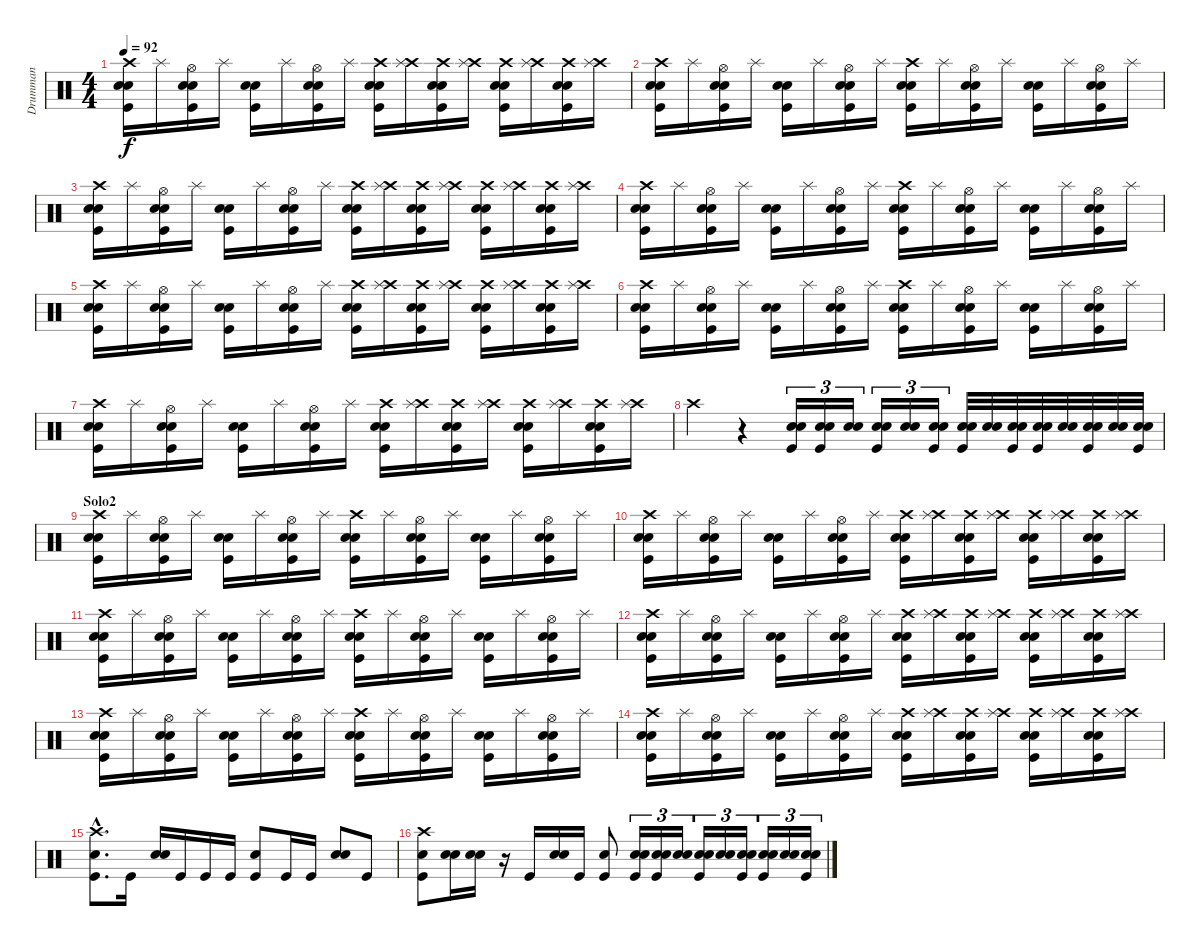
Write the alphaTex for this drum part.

\track ("Drumman" "Drumman") {instrument percussion}
\staff {score}
\articulation defaults
\ts (4 4)
\tempo 92
\clef neutral
\ks c
("Crash high (hit)" "Snare (hit) 2" "Electric Snare (hit)" "Kick (hit)").16{dy f} "Splash (hit)".16 ("Hi-Hat (open)" "Snare (hit) 2" "Electric Snare (hit)" "Kick (hit)").16 "Splash (hit)".16 ("Snare (hit) 2" "Electric Snare (hit)" "Kick (hit)").16 "Splash (hit)".16 ("Hi-Hat (open)" "Snare (hit) 2" "Electric Snare (hit)" "Kick (hit)").16 "Splash (hit)".16 ("Crash high (hit)" "Snare (hit) 2" "Electric Snare (hit)" "Kick (hit)").16 ("Crash high (hit)" "Splash (hit)").16 ("Crash high (hit)" "Snare (hit) 2" "Electric Snare (hit)" "Kick (hit)").16 ("Crash high (hit)" "Splash (hit)").16 ("Crash high (hit)" "Snare (hit) 2" "Electric Snare (hit)" "Kick (hit)").16 ("Crash high (hit)" "Splash (hit)").16 ("Crash high (hit)" "Snare (hit) 2" "Electric Snare (hit)" "Kick (hit)").16 ("Crash high (hit)" "Splash (hit)").16 |
("Crash high (hit)" "Snare (hit) 2" "Electric Snare (hit)" "Kick (hit)").16 "Splash (hit)".16 ("Hi-Hat (open)" "Snare (hit) 2" "Electric Snare (hit)" "Kick (hit)").16 "Splash (hit)".16 ("Snare (hit) 2" "Electric Snare (hit)" "Kick (hit)").16 "Splash (hit)".16 ("Hi-Hat (open)" "Snare (hit) 2" "Electric Snare (hit)" "Kick (hit)").16 "Splash (hit)".16 ("Crash high (hit)" "Snare (hit) 2" "Electric Snare (hit)" "Kick (hit)").16 "Splash (hit)".16 ("Hi-Hat (open)" "Snare (hit) 2" "Electric Snare (hit)" "Kick (hit)").16 "Splash (hit)".16 ("Snare (hit) 2" "Electric Snare (hit)" "Kick (hit)").16 "Splash (hit)".16 ("Hi-Hat (open)" "Snare (hit) 2" "Electric Snare (hit)" "Kick (hit)").16 "Splash (hit)".16 |
("Crash high (hit)" "Snare (hit) 2" "Electric Snare (hit)" "Kick (hit)").16 "Splash (hit)".16 ("Hi-Hat (open)" "Snare (hit) 2" "Electric Snare (hit)" "Kick (hit)").16 "Splash (hit)".16 ("Snare (hit) 2" "Electric Snare (hit)" "Kick (hit)").16 "Splash (hit)".16 ("Hi-Hat (open)" "Snare (hit) 2" "Electric Snare (hit)" "Kick (hit)").16 "Splash (hit)".16 ("Crash high (hit)" "Snare (hit) 2" "Electric Snare (hit)" "Kick (hit)").16 ("Crash high (hit)" "Splash (hit)").16 ("Crash high (hit)" "Snare (hit) 2" "Electric Snare (hit)" "Kick (hit)").16 ("Crash high (hit)" "Splash (hit)").16 ("Crash high (hit)" "Snare (hit) 2" "Electric Snare (hit)" "Kick (hit)").16 ("Crash high (hit)" "Splash (hit)").16 ("Crash high (hit)" "Snare (hit) 2" "Electric Snare (hit)" "Kick (hit)").16 ("Crash high (hit)" "Splash (hit)").16 |
("Crash high (hit)" "Snare (hit) 2" "Electric Snare (hit)" "Kick (hit)").16 "Splash (hit)".16 ("Hi-Hat (open)" "Snare (hit) 2" "Electric Snare (hit)" "Kick (hit)").16 "Splash (hit)".16 ("Snare (hit) 2" "Electric Snare (hit)" "Kick (hit)").16 "Splash (hit)".16 ("Hi-Hat (open)" "Snare (hit) 2" "Electric Snare (hit)" "Kick (hit)").16 "Splash (hit)".16 ("Crash high (hit)" "Snare (hit) 2" "Electric Snare (hit)" "Kick (hit)").16 "Splash (hit)".16 ("Hi-Hat (open)" "Snare (hit) 2" "Electric Snare (hit)" "Kick (hit)").16 "Splash (hit)".16 ("Snare (hit) 2" "Electric Snare (hit)" "Kick (hit)").16 "Splash (hit)".16 ("Hi-Hat (open)" "Snare (hit) 2" "Electric Snare (hit)" "Kick (hit)").16 "Splash (hit)".16 |
("Crash high (hit)" "Snare (hit) 2" "Electric Snare (hit)" "Kick (hit)").16 "Splash (hit)".16 ("Hi-Hat (open)" "Snare (hit) 2" "Electric Snare (hit)" "Kick (hit)").16 "Splash (hit)".16 ("Snare (hit) 2" "Electric Snare (hit)" "Kick (hit)").16 "Splash (hit)".16 ("Hi-Hat (open)" "Snare (hit) 2" "Electric Snare (hit)" "Kick (hit)").16 "Splash (hit)".16 ("Crash high (hit)" "Snare (hit) 2" "Electric Snare (hit)" "Kick (hit)").16 ("Crash high (hit)" "Splash (hit)").16 ("Crash high (hit)" "Snare (hit) 2" "Electric Snare (hit)" "Kick (hit)").16 ("Crash high (hit)" "Splash (hit)").16 ("Crash high (hit)" "Snare (hit) 2" "Electric Snare (hit)" "Kick (hit)").16 ("Crash high (hit)" "Splash (hit)").16 ("Crash high (hit)" "Snare (hit) 2" "Electric Snare (hit)" "Kick (hit)").16 ("Crash high (hit)" "Splash (hit)").16 |
("Crash high (hit)" "Snare (hit) 2" "Electric Snare (hit)" "Kick (hit)").16 "Splash (hit)".16 ("Hi-Hat (open)" "Snare (hit) 2" "Electric Snare (hit)" "Kick (hit)").16 "Splash (hit)".16 ("Snare (hit) 2" "Electric Snare (hit)" "Kick (hit)").16 "Splash (hit)".16 ("Hi-Hat (open)" "Snare (hit) 2" "Electric Snare (hit)" "Kick (hit)").16 "Splash (hit)".16 ("Crash high (hit)" "Snare (hit) 2" "Electric Snare (hit)" "Kick (hit)").16 "Splash (hit)".16 ("Hi-Hat (open)" "Snare (hit) 2" "Electric Snare (hit)" "Kick (hit)").16 "Splash (hit)".16 ("Snare (hit) 2" "Electric Snare (hit)" "Kick (hit)").16 "Splash (hit)".16 ("Hi-Hat (open)" "Snare (hit) 2" "Electric Snare (hit)" "Kick (hit)").16 "Splash (hit)".16 |
("Crash high (hit)" "Snare (hit) 2" "Electric Snare (hit)" "Kick (hit)").16 "Splash (hit)".16 ("Hi-Hat (open)" "Snare (hit) 2" "Electric Snare (hit)" "Kick (hit)").16 "Splash (hit)".16 ("Snare (hit) 2" "Electric Snare (hit)" "Kick (hit)").16 "Splash (hit)".16 ("Hi-Hat (open)" "Snare (hit) 2" "Electric Snare (hit)" "Kick (hit)").16 "Splash (hit)".16 ("Crash high (hit)" "Snare (hit) 2" "Electric Snare (hit)" "Kick (hit)").16 ("Crash high (hit)" "Splash (hit)").16 ("Crash high (hit)" "Snare (hit) 2" "Electric Snare (hit)" "Kick (hit)").16 ("Crash high (hit)" "Splash (hit)").16 ("Crash high (hit)" "Snare (hit) 2" "Electric Snare (hit)" "Kick (hit)").16 ("Crash high (hit)" "Splash (hit)").16 ("Crash high (hit)" "Snare (hit) 2" "Electric Snare (hit)" "Kick (hit)").16 ("Crash high (hit)" "Splash (hit)").16 |
"Crash high (hit)".4 r.4 ("Snare (hit) 2" "Electric Snare (hit)" "Kick (hit)").16{tu (3 2)} ("Snare (hit) 2" "Electric Snare (hit)" "Kick (hit)").16{tu (3 2)} ("Snare (hit) 2" "Electric Snare (hit)").16{tu (3 2)} ("Snare (hit) 2" "Electric Snare (hit)" "Kick (hit)").16{tu (3 2)} ("Snare (hit) 2" "Electric Snare (hit)").16{tu (3 2)} ("Snare (hit) 2" "Electric Snare (hit)" "Kick (hit)").16{tu (3 2)} ("Snare (hit) 2" "Electric Snare (hit)" "Kick (hit)").32 ("Snare (hit) 2" "Electric Snare (hit)").32 ("Snare (hit) 2" "Electric Snare (hit)" "Kick (hit)").32 ("Snare (hit) 2" "Electric Snare (hit)" "Kick (hit)").32 ("Snare (hit) 2" "Electric Snare (hit)").32 ("Snare (hit) 2" "Electric Snare (hit)" "Kick (hit)").32 ("Snare (hit) 2" "Electric Snare (hit)").32 ("Snare (hit) 2" "Electric Snare (hit)" "Kick (hit)").32 |
\section ("" "Solo2")
("Crash high (hit)" "Snare (hit) 2" "Electric Snare (hit)" "Kick (hit)").16 "Splash (hit)".16 ("Hi-Hat (open)" "Snare (hit) 2" "Electric Snare (hit)" "Kick (hit)").16 "Splash (hit)".16 ("Snare (hit) 2" "Electric Snare (hit)" "Kick (hit)").16 "Splash (hit)".16 ("Hi-Hat (open)" "Snare (hit) 2" "Electric Snare (hit)" "Kick (hit)").16 "Splash (hit)".16 ("Crash high (hit)" "Snare (hit) 2" "Electric Snare (hit)" "Kick (hit)").16 "Splash (hit)".16 ("Hi-Hat (open)" "Snare (hit) 2" "Electric Snare (hit)" "Kick (hit)").16 "Splash (hit)".16 ("Snare (hit) 2" "Electric Snare (hit)" "Kick (hit)").16 "Splash (hit)".16 ("Hi-Hat (open)" "Snare (hit) 2" "Electric Snare (hit)" "Kick (hit)").16 "Splash (hit)".16 |
("Crash high (hit)" "Snare (hit) 2" "Electric Snare (hit)" "Kick (hit)").16 "Splash (hit)".16 ("Hi-Hat (open)" "Snare (hit) 2" "Electric Snare (hit)" "Kick (hit)").16 "Splash (hit)".16 ("Snare (hit) 2" "Electric Snare (hit)" "Kick (hit)").16 "Splash (hit)".16 ("Hi-Hat (open)" "Snare (hit) 2" "Electric Snare (hit)" "Kick (hit)").16 "Splash (hit)".16 ("Crash high (hit)" "Snare (hit) 2" "Electric Snare (hit)" "Kick (hit)").16 ("Crash high (hit)" "Splash (hit)").16 ("Crash high (hit)" "Snare (hit) 2" "Electric Snare (hit)" "Kick (hit)").16 ("Crash high (hit)" "Splash (hit)").16 ("Crash high (hit)" "Snare (hit) 2" "Electric Snare (hit)" "Kick (hit)").16 ("Crash high (hit)" "Splash (hit)").16 ("Crash high (hit)" "Snare (hit) 2" "Electric Snare (hit)" "Kick (hit)").16 ("Crash high (hit)" "Splash (hit)").16 |
("Crash high (hit)" "Snare (hit) 2" "Electric Snare (hit)" "Kick (hit)").16 "Splash (hit)".16 ("Hi-Hat (open)" "Snare (hit) 2" "Electric Snare (hit)" "Kick (hit)").16 "Splash (hit)".16 ("Snare (hit) 2" "Electric Snare (hit)" "Kick (hit)").16 "Splash (hit)".16 ("Hi-Hat (open)" "Snare (hit) 2" "Electric Snare (hit)" "Kick (hit)").16 "Splash (hit)".16 ("Crash high (hit)" "Snare (hit) 2" "Electric Snare (hit)" "Kick (hit)").16 "Splash (hit)".16 ("Hi-Hat (open)" "Snare (hit) 2" "Electric Snare (hit)" "Kick (hit)").16 "Splash (hit)".16 ("Snare (hit) 2" "Electric Snare (hit)" "Kick (hit)").16 "Splash (hit)".16 ("Hi-Hat (open)" "Snare (hit) 2" "Electric Snare (hit)" "Kick (hit)").16 "Splash (hit)".16 |
("Crash high (hit)" "Snare (hit) 2" "Electric Snare (hit)" "Kick (hit)").16 "Splash (hit)".16 ("Hi-Hat (open)" "Snare (hit) 2" "Electric Snare (hit)" "Kick (hit)").16 "Splash (hit)".16 ("Snare (hit) 2" "Electric Snare (hit)" "Kick (hit)").16 "Splash (hit)".16 ("Hi-Hat (open)" "Snare (hit) 2" "Electric Snare (hit)" "Kick (hit)").16 "Splash (hit)".16 ("Crash high (hit)" "Snare (hit) 2" "Electric Snare (hit)" "Kick (hit)").16 ("Crash high (hit)" "Splash (hit)").16 ("Crash high (hit)" "Snare (hit) 2" "Electric Snare (hit)" "Kick (hit)").16 ("Crash high (hit)" "Splash (hit)").16 ("Crash high (hit)" "Snare (hit) 2" "Electric Snare (hit)" "Kick (hit)").16 ("Crash high (hit)" "Splash (hit)").16 ("Crash high (hit)" "Snare (hit) 2" "Electric Snare (hit)" "Kick (hit)").16 ("Crash high (hit)" "Splash (hit)").16 |
("Crash high (hit)" "Snare (hit) 2" "Electric Snare (hit)" "Kick (hit)").16 "Splash (hit)".16 ("Hi-Hat (open)" "Snare (hit) 2" "Electric Snare (hit)" "Kick (hit)").16 "Splash (hit)".16 ("Snare (hit) 2" "Electric Snare (hit)" "Kick (hit)").16 "Splash (hit)".16 ("Hi-Hat (open)" "Snare (hit) 2" "Electric Snare (hit)" "Kick (hit)").16 "Splash (hit)".16 ("Crash high (hit)" "Snare (hit) 2" "Electric Snare (hit)" "Kick (hit)").16 "Splash (hit)".16 ("Hi-Hat (open)" "Snare (hit) 2" "Electric Snare (hit)" "Kick (hit)").16 "Splash (hit)".16 ("Snare (hit) 2" "Electric Snare (hit)" "Kick (hit)").16 "Splash (hit)".16 ("Hi-Hat (open)" "Snare (hit) 2" "Electric Snare (hit)" "Kick (hit)").16 "Splash (hit)".16 |
("Crash high (hit)" "Snare (hit) 2" "Electric Snare (hit)" "Kick (hit)").16 "Splash (hit)".16 ("Hi-Hat (open)" "Snare (hit) 2" "Electric Snare (hit)" "Kick (hit)").16 "Splash (hit)".16 ("Snare (hit) 2" "Electric Snare (hit)" "Kick (hit)").16 "Splash (hit)".16 ("Hi-Hat (open)" "Snare (hit) 2" "Electric Snare (hit)" "Kick (hit)").16 "Splash (hit)".16 ("Crash high (hit)" "Snare (hit) 2" "Electric Snare (hit)" "Kick (hit)").16 ("Crash high (hit)" "Splash (hit)").16 ("Crash high (hit)" "Snare (hit) 2" "Electric Snare (hit)" "Kick (hit)").16 ("Crash high (hit)" "Splash (hit)").16 ("Crash high (hit)" "Snare (hit) 2" "Electric Snare (hit)" "Kick (hit)").16 ("Crash high (hit)" "Splash (hit)").16 ("Crash high (hit)" "Snare (hit) 2" "Electric Snare (hit)" "Kick (hit)").16 ("Crash high (hit)" "Splash (hit)").16 |
("Hand Clap (hit)"{hac} "Crash high (hit)"{hac} "Kick (hit)"{hac}).8{d} "Kick (hit)".16 ("Snare (hit) 2" "Electric Snare (hit)").16 "Kick (hit)".16 "Kick (hit)".16 "Kick (hit)".16 ("Hand Clap (hit)" "Kick (hit)").8 "Kick (hit)".16 "Kick (hit)".16 ("Snare (hit) 2" "Electric Snare (hit)").8 "Kick (hit)".8 |
("Hand Clap (hit)" "Crash high (hit)" "Kick (hit)").8 ("Snare (hit) 2" "Electric Snare (hit)").16 ("Snare (hit) 2" "Electric Snare (hit)").16 r.16 "Kick (hit)".16 ("Snare (hit) 2" "Electric Snare (hit)").16 "Kick (hit)".16 ("Hand Clap (hit)" "Kick (hit)").8 ("Snare (hit) 2" "Electric Snare (hit)" "Kick (hit)").16{tu (3 2)} ("Snare (hit) 2" "Electric Snare (hit)" "Kick (hit)").16{tu (3 2)} ("Snare (hit) 2" "Electric Snare (hit)").16{tu (3 2)} ("Snare (hit) 2" "Electric Snare (hit)" "Kick (hit)").16{tu (3 2)} ("Snare (hit) 2" "Electric Snare (hit)").16{tu (3 2)} ("Snare (hit) 2" "Electric Snare (hit)" "Kick (hit)").16{tu (3 2)} ("Snare (hit) 2" "Electric Snare (hit)" "Kick (hit)").16{tu (3 2)} ("Snare (hit) 2" "Electric Snare (hit)").16{tu (3 2)} ("Snare (hit) 2" "Electric Snare (hit)" "Kick (hit)").16{tu (3 2)}
